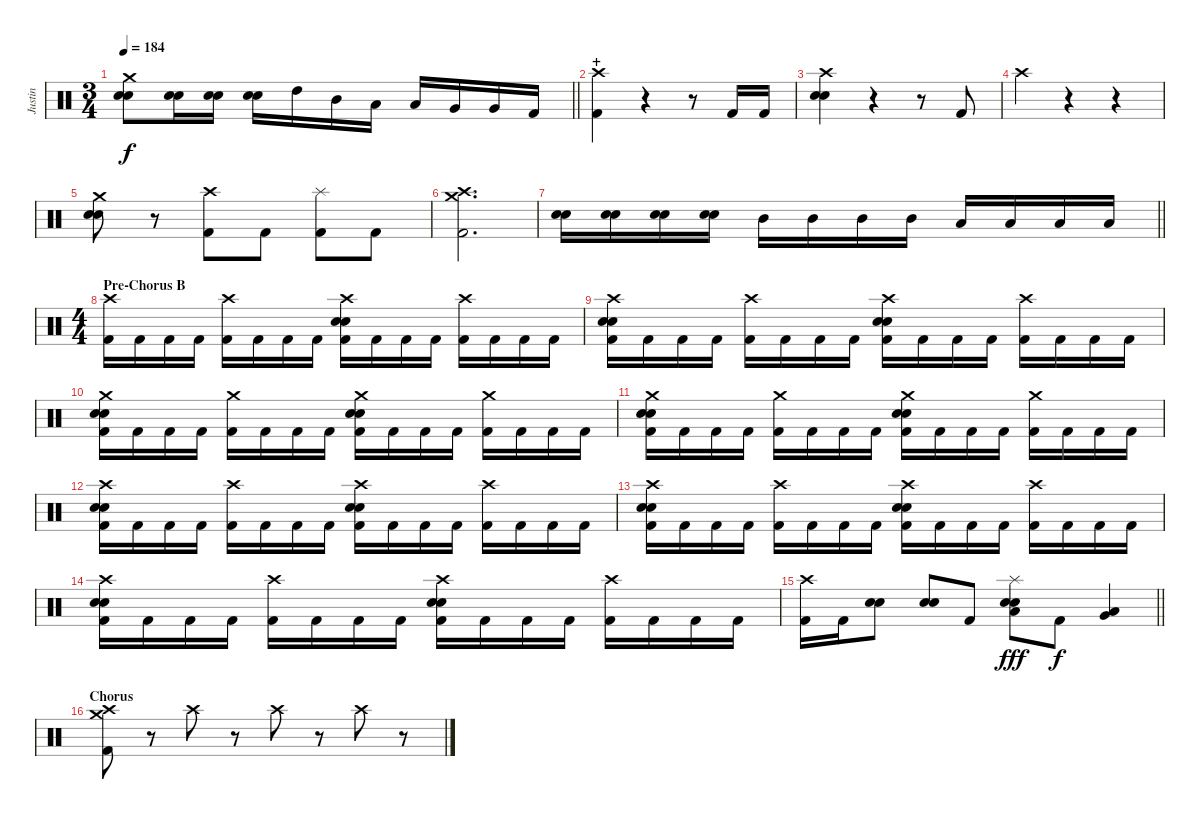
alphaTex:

\track ("Justin" "Justin") {instrument percussion}
\staff {score}
\articulation defaults
\ts (3 4)
\tempo 184
\clef neutral
\barLineRight lightlight
\ks c
("Crash medium (hit)" "Electric Snare (hit)" "Snare (hit) 2").8{dy f} ("Electric Snare (hit)" "Snare (hit) 2").16 ("Electric Snare (hit)" "Snare (hit) 2").16 ("Electric Snare (hit)" "Snare (hit) 2").16 "High Tom (hit)".16 "Mid Tom (hit)".16 "Low Tom (hit)".16 "Low Tom (hit)".16 "Very Low Tom (hit)".16 "Very Low Tom (hit)".16 "Kick (hit) 2".16 |
\section ("" "+")
("Crash high (hit)" "Kick (hit) 2").4 r.4 r.8 "Kick (hit) 2".16 "Kick (hit) 2".16 |
("Crash high (hit)" "Electric Snare (hit)" "Snare (hit) 2").4 r.4 r.8 "Kick (hit) 2".8 |
"Crash high (hit)".4 r.4 r.4 |
("Crash medium (hit)" "Electric Snare (hit)" "Snare (hit) 2").8 r.8 ("Crash high (hit)" "Kick (hit) 2").8 "Kick (hit) 2".8 ("Splash (hit)" "Kick (hit) 2").8 "Kick (hit) 2".8 |
("Crash medium (hit)" "Crash high (hit)" "Kick (hit) 2").2{d} |
\barLineRight lightlight
("Electric Snare (hit)" "Snare (hit) 2").16 ("Electric Snare (hit)" "Snare (hit) 2").16 ("Electric Snare (hit)" "Snare (hit) 2").16 ("Electric Snare (hit)" "Snare (hit) 2").16 "Mid Tom (hit)".16 "Mid Tom (hit)".16 "Mid Tom (hit)".16 "Mid Tom (hit)".16 "Low Tom (hit)".16 "Low Tom (hit)".16 "Low Tom (hit)".16 "Low Tom (hit)".16 |
\ts (4 4)
\section ("" "Pre-Chorus B")
("Crash high (hit)" "Kick (hit) 2").16 "Kick (hit) 2".16 "Kick (hit) 2".16 "Kick (hit) 2".16 ("Crash high (hit)" "Kick (hit) 2").16 "Kick (hit) 2".16 "Kick (hit) 2".16 "Kick (hit) 2".16 ("Crash high (hit)" "Electric Snare (hit)" "Snare (hit) 2" "Kick (hit) 2").16 "Kick (hit) 2".16 "Kick (hit) 2".16 "Kick (hit) 2".16 ("Crash high (hit)" "Kick (hit) 2").16 "Kick (hit) 2".16 "Kick (hit) 2".16 "Kick (hit) 2".16 |
("Crash high (hit)" "Electric Snare (hit)" "Snare (hit) 2" "Kick (hit) 2").16 "Kick (hit) 2".16 "Kick (hit) 2".16 "Kick (hit) 2".16 ("Crash high (hit)" "Kick (hit) 2").16 "Kick (hit) 2".16 "Kick (hit) 2".16 "Kick (hit) 2".16 ("Crash high (hit)" "Electric Snare (hit)" "Snare (hit) 2" "Kick (hit) 2").16 "Kick (hit) 2".16 "Kick (hit) 2".16 "Kick (hit) 2".16 ("Crash high (hit)" "Kick (hit) 2").16 "Kick (hit) 2".16 "Kick (hit) 2".16 "Kick (hit) 2".16 |
("Crash medium (hit)" "Electric Snare (hit)" "Snare (hit) 2" "Kick (hit) 2").16 "Kick (hit) 2".16 "Kick (hit) 2".16 "Kick (hit) 2".16 ("Crash medium (hit)" "Kick (hit) 2").16 "Kick (hit) 2".16 "Kick (hit) 2".16 "Kick (hit) 2".16 ("Crash medium (hit)" "Electric Snare (hit)" "Snare (hit) 2" "Kick (hit) 2").16 "Kick (hit) 2".16 "Kick (hit) 2".16 "Kick (hit) 2".16 ("Crash medium (hit)" "Kick (hit) 2").16 "Kick (hit) 2".16 "Kick (hit) 2".16 "Kick (hit) 2".16 |
("Crash medium (hit)" "Electric Snare (hit)" "Snare (hit) 2" "Kick (hit) 2").16 "Kick (hit) 2".16 "Kick (hit) 2".16 "Kick (hit) 2".16 ("Crash medium (hit)" "Kick (hit) 2").16 "Kick (hit) 2".16 "Kick (hit) 2".16 "Kick (hit) 2".16 ("Crash medium (hit)" "Electric Snare (hit)" "Snare (hit) 2" "Kick (hit) 2").16 "Kick (hit) 2".16 "Kick (hit) 2".16 "Kick (hit) 2".16 ("Crash medium (hit)" "Kick (hit) 2").16 "Kick (hit) 2".16 "Kick (hit) 2".16 "Kick (hit) 2".16 |
("Crash high (hit)" "Electric Snare (hit)" "Snare (hit) 2" "Kick (hit) 2").16 "Kick (hit) 2".16 "Kick (hit) 2".16 "Kick (hit) 2".16 ("Crash high (hit)" "Kick (hit) 2").16 "Kick (hit) 2".16 "Kick (hit) 2".16 "Kick (hit) 2".16 ("Crash high (hit)" "Electric Snare (hit)" "Snare (hit) 2" "Kick (hit) 2").16 "Kick (hit) 2".16 "Kick (hit) 2".16 "Kick (hit) 2".16 ("Crash high (hit)" "Kick (hit) 2").16 "Kick (hit) 2".16 "Kick (hit) 2".16 "Kick (hit) 2".16 |
("Crash high (hit)" "Electric Snare (hit)" "Snare (hit) 2" "Kick (hit) 2").16 "Kick (hit) 2".16 "Kick (hit) 2".16 "Kick (hit) 2".16 ("Crash high (hit)" "Kick (hit) 2").16 "Kick (hit) 2".16 "Kick (hit) 2".16 "Kick (hit) 2".16 ("Crash high (hit)" "Electric Snare (hit)" "Snare (hit) 2" "Kick (hit) 2").16 "Kick (hit) 2".16 "Kick (hit) 2".16 "Kick (hit) 2".16 ("Crash high (hit)" "Kick (hit) 2").16 "Kick (hit) 2".16 "Kick (hit) 2".16 "Kick (hit) 2".16 |
("Crash high (hit)" "Electric Snare (hit)" "Snare (hit) 2" "Kick (hit) 2").16 "Kick (hit) 2".16 "Kick (hit) 2".16 "Kick (hit) 2".16 ("Crash high (hit)" "Kick (hit) 2").16 "Kick (hit) 2".16 "Kick (hit) 2".16 "Kick (hit) 2".16 ("Crash high (hit)" "Electric Snare (hit)" "Snare (hit) 2" "Kick (hit) 2").16 "Kick (hit) 2".16 "Kick (hit) 2".16 "Kick (hit) 2".16 ("Crash high (hit)" "Kick (hit) 2").16 "Kick (hit) 2".16 "Kick (hit) 2".16 "Kick (hit) 2".16 |
\barLineRight lightlight
("Crash high (hit)" "Kick (hit) 2").16 "Kick (hit) 2".16 ("Electric Snare (hit)" "Snare (hit) 2").8 ("Electric Snare (hit)" "Snare (hit) 2").8 "Kick (hit) 2".8 ("Splash (hit)" "Electric Snare (hit)" "Snare (hit) 2" "Low Tom (hit)").8{dy fff} "Kick (hit) 2".8{dy f} ("Low Tom (hit)" "Very Low Tom (hit)").4 |
\section ("" "Chorus")
("Crash medium (hit)" "Crash high (hit)" "Kick (hit) 2").8 r.8 "Crash high (hit)".8 r.8 "Crash high (hit)".8 r.8 "Crash high (hit)".8 r.8
